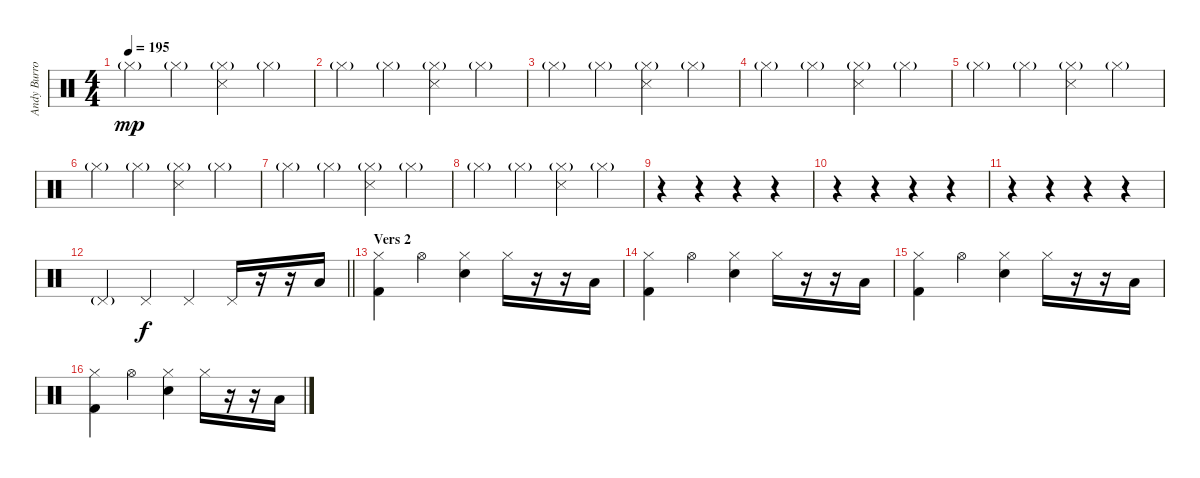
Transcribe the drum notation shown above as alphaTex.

\track ("Andy Burrows (drums)" "Andy Burro") {instrument percussion}
\staff {score}
\articulation defaults
\ts (4 4)
\tempo 195
\clef neutral
\ks c "Hi-Hat (closed)"{g}.4{dy mp} "Hi-Hat (closed)"{g}.4
("Hi-Hat (closed)"{g} "Snare (side stick) 3").4 "Hi-Hat (closed)"{g}.4 |
"Hi-Hat (closed)"{g}.4 "Hi-Hat (closed)"{g}.4 ("Hi-Hat (closed)"{g} "Snare (side stick) 3").4 "Hi-Hat (closed)"{g}.4 |
"Hi-Hat (closed)"{g}.4 "Hi-Hat (closed)"{g}.4 ("Hi-Hat (closed)"{g} "Snare (side stick) 3").4 "Hi-Hat (closed)"{g}.4 |
"Hi-Hat (closed)"{g}.4 "Hi-Hat (closed)"{g}.4 ("Hi-Hat (closed)"{g} "Snare (side stick) 3").4 "Hi-Hat (closed)"{g}.4 |
"Hi-Hat (closed)"{g}.4 "Hi-Hat (closed)"{g}.4 ("Hi-Hat (closed)"{g} "Snare (side stick) 3").4 "Hi-Hat (closed)"{g}.4 |
"Hi-Hat (closed)"{g}.4 "Hi-Hat (closed)"{g}.4 ("Hi-Hat (closed)"{g} "Snare (side stick) 3").4 "Hi-Hat (closed)"{g}.4 |
"Hi-Hat (closed)"{g}.4 "Hi-Hat (closed)"{g}.4 ("Hi-Hat (closed)"{g} "Snare (side stick) 3").4 "Hi-Hat (closed)"{g}.4 |
"Hi-Hat (closed)"{g}.4 "Hi-Hat (closed)"{g}.4 ("Hi-Hat (closed)"{g} "Snare (side stick) 3").4 "Hi-Hat (closed)"{g}.4 |
r.4 r.4 r.4 r.4 |
r.4 r.4 r.4 r.4 |
r.4 r.4 r.4 r.4 |
\barLineRight lightlight "Pedal Hi-Hat (hit)"{g}.4 "Pedal Hi-Hat (hit)".4{dy f} "Pedal Hi-Hat (hit)".4 "Pedal Hi-Hat (hit)".16
r.16 r.16 "Low Floor Tom (hit)".16 |
\section ("" "Vers 2")
("Hi-Hat (closed)" "Kick (hit) 2").4 "Hi-Hat (open)".4 ("Hi-Hat (closed)" "Electric Snare (hit)").4 "Hi-Hat (closed)".16 r.16 r.16 "Low Floor Tom (hit)".16 |
("Hi-Hat (closed)" "Kick (hit) 2").4 "Hi-Hat (open)".4 ("Hi-Hat (closed)" "Electric Snare (hit)").4 "Hi-Hat (closed)".16 r.16 r.16 "Low Floor Tom (hit)".16 |
("Hi-Hat (closed)" "Kick (hit) 2").4 "Hi-Hat (open)".4 ("Hi-Hat (closed)" "Electric Snare (hit)").4 "Hi-Hat (closed)".16 r.16 r.16 "Low Floor Tom (hit)".16 |
("Hi-Hat (closed)" "Kick (hit) 2").4 "Hi-Hat (open)".4 ("Hi-Hat (closed)" "Electric Snare (hit)").4 "Hi-Hat (closed)".16 r.16 r.16 "Low Floor Tom (hit)".16
